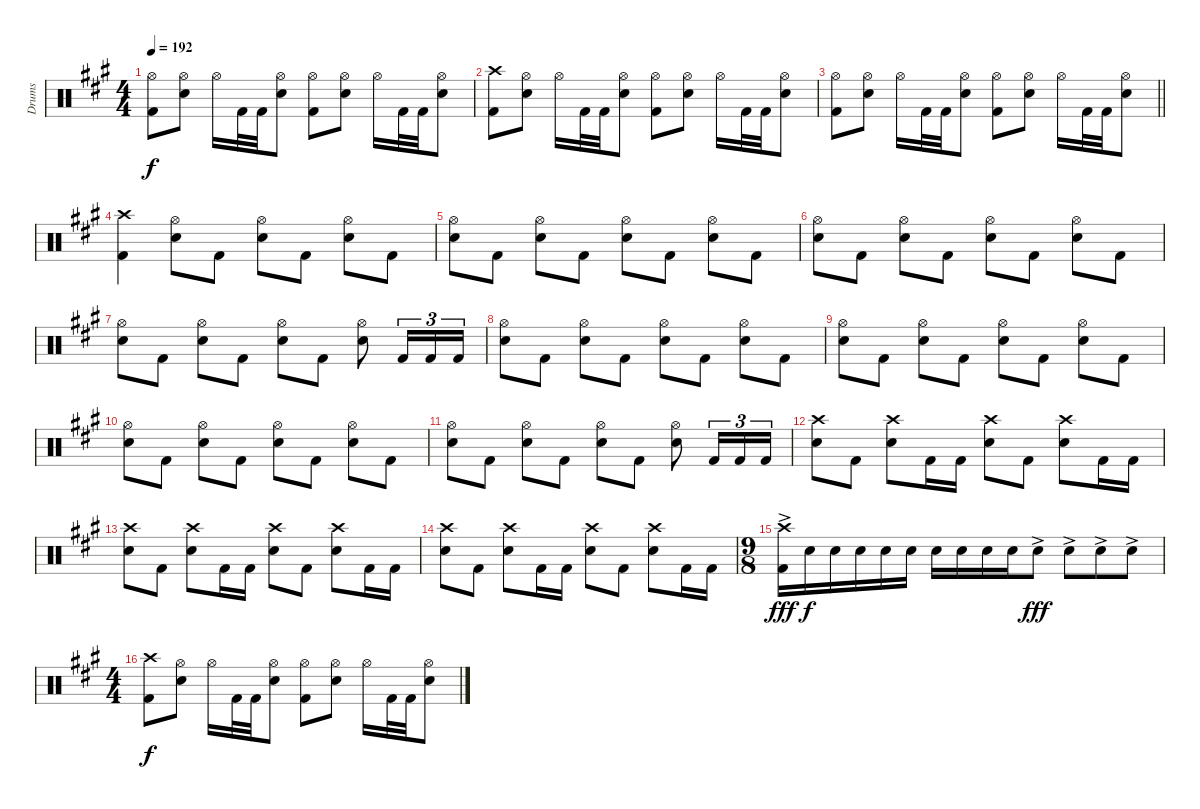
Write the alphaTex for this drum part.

\track ("Drums" "Drums") {instrument percussion}
\staff {score}
\articulation defaults
\ts (4 4)
\tempo 192
\clef neutral
\ks f#minor
("Hi-Hat (open)" "Kick (hit) 2").8{dy f} ("Hi-Hat (open)" "Snare (hit) 2").8 "Hi-Hat (open)".16 "Kick (hit) 2".32 "Kick (hit) 2".32 ("Hi-Hat (open)" "Snare (hit) 2").8 ("Hi-Hat (open)" "Kick (hit) 2").8 ("Hi-Hat (open)" "Snare (hit) 2").8 "Hi-Hat (open)".16 "Kick (hit) 2".32 "Kick (hit) 2".32 ("Hi-Hat (open)" "Snare (hit) 2").8 |
("Crash high (hit)" "Kick (hit) 2").8 ("Hi-Hat (open)" "Snare (hit) 2").8 "Hi-Hat (open)".16 "Kick (hit) 2".32 "Kick (hit) 2".32 ("Hi-Hat (open)" "Snare (hit) 2").8 ("Hi-Hat (open)" "Kick (hit) 2").8 ("Hi-Hat (open)" "Snare (hit) 2").8 "Hi-Hat (open)".16 "Kick (hit) 2".32 "Kick (hit) 2".32 ("Hi-Hat (open)" "Snare (hit) 2").8 |
\barLineRight lightlight
("Hi-Hat (open)" "Kick (hit) 2").8 ("Hi-Hat (open)" "Snare (hit) 2").8 "Hi-Hat (open)".16 "Kick (hit) 2".32 "Kick (hit) 2".32 ("Hi-Hat (open)" "Snare (hit) 2").8 ("Hi-Hat (open)" "Kick (hit) 2").8 ("Hi-Hat (open)" "Snare (hit) 2").8 "Hi-Hat (open)".16 "Kick (hit) 2".32 "Kick (hit) 2".32 ("Hi-Hat (open)" "Snare (hit) 2").8 |
("Crash high (hit)" "Kick (hit) 2").4 ("Hi-Hat (open)" "Snare (hit) 2").8 "Kick (hit) 2".8 ("Hi-Hat (open)" "Snare (hit) 2").8 "Kick (hit) 2".8 ("Hi-Hat (open)" "Snare (hit) 2").8 "Kick (hit) 2".8 |
("Hi-Hat (open)" "Snare (hit) 2").8 "Kick (hit) 2".8 ("Hi-Hat (open)" "Snare (hit) 2").8 "Kick (hit) 2".8 ("Hi-Hat (open)" "Snare (hit) 2").8 "Kick (hit) 2".8 ("Hi-Hat (open)" "Snare (hit) 2").8 "Kick (hit) 2".8 |
("Hi-Hat (open)" "Snare (hit) 2").8 "Kick (hit) 2".8 ("Hi-Hat (open)" "Snare (hit) 2").8 "Kick (hit) 2".8 ("Hi-Hat (open)" "Snare (hit) 2").8 "Kick (hit) 2".8 ("Hi-Hat (open)" "Snare (hit) 2").8 "Kick (hit) 2".8 |
("Hi-Hat (open)" "Snare (hit) 2").8 "Kick (hit) 2".8 ("Hi-Hat (open)" "Snare (hit) 2").8 "Kick (hit) 2".8 ("Hi-Hat (open)" "Snare (hit) 2").8 "Kick (hit) 2".8 ("Hi-Hat (open)" "Snare (hit) 2").8 "Kick (hit) 2".16{tu (3 2)} "Kick (hit) 2".16{tu (3 2)} "Kick (hit) 2".16{tu (3 2)} |
("Hi-Hat (open)" "Snare (hit) 2").8 "Kick (hit) 2".8 ("Hi-Hat (open)" "Snare (hit) 2").8 "Kick (hit) 2".8 ("Hi-Hat (open)" "Snare (hit) 2").8 "Kick (hit) 2".8 ("Hi-Hat (open)" "Snare (hit) 2").8 "Kick (hit) 2".8 |
("Hi-Hat (open)" "Snare (hit) 2").8 "Kick (hit) 2".8 ("Hi-Hat (open)" "Snare (hit) 2").8 "Kick (hit) 2".8 ("Hi-Hat (open)" "Snare (hit) 2").8 "Kick (hit) 2".8 ("Hi-Hat (open)" "Snare (hit) 2").8 "Kick (hit) 2".8 |
("Hi-Hat (open)" "Snare (hit) 2").8 "Kick (hit) 2".8 ("Hi-Hat (open)" "Snare (hit) 2").8 "Kick (hit) 2".8 ("Hi-Hat (open)" "Snare (hit) 2").8 "Kick (hit) 2".8 ("Hi-Hat (open)" "Snare (hit) 2").8 "Kick (hit) 2".8 |
("Hi-Hat (open)" "Snare (hit) 2").8 "Kick (hit) 2".8 ("Hi-Hat (open)" "Snare (hit) 2").8 "Kick (hit) 2".8 ("Hi-Hat (open)" "Snare (hit) 2").8 "Kick (hit) 2".8 ("Hi-Hat (open)" "Snare (hit) 2").8 "Kick (hit) 2".16{tu (3 2)} "Kick (hit) 2".16{tu (3 2)} "Kick (hit) 2".16{tu (3 2)} |
("Crash high (hit)" "Snare (hit) 2").8 "Kick (hit) 2".8 ("Crash high (hit)" "Snare (hit) 2").8 "Kick (hit) 2".16 "Kick (hit) 2".16 ("Crash high (hit)" "Snare (hit) 2").8 "Kick (hit) 2".8 ("Crash high (hit)" "Snare (hit) 2").8 "Kick (hit) 2".16 "Kick (hit) 2".16 |
("Crash high (hit)" "Snare (hit) 2").8 "Kick (hit) 2".8 ("Crash high (hit)" "Snare (hit) 2").8 "Kick (hit) 2".16 "Kick (hit) 2".16 ("Crash high (hit)" "Snare (hit) 2").8 "Kick (hit) 2".8 ("Crash high (hit)" "Snare (hit) 2").8 "Kick (hit) 2".16 "Kick (hit) 2".16 |
("Crash high (hit)" "Snare (hit) 2").8 "Kick (hit) 2".8 ("Crash high (hit)" "Snare (hit) 2").8 "Kick (hit) 2".16 "Kick (hit) 2".16 ("Crash high (hit)" "Snare (hit) 2").8 "Kick (hit) 2".8 ("Crash high (hit)" "Snare (hit) 2").8 "Kick (hit) 2".16 "Kick (hit) 2".16 |
\ts (9 8)
("Crash high (hit)"{ac} "Kick (hit) 2"{ac}).16{dy fff} "Snare (hit) 2".16{dy f} "Snare (hit) 2".16 "Snare (hit) 2".16 "Snare (hit) 2".16 "Snare (hit) 2".16 "Snare (hit) 2".16 "Snare (hit) 2".16 "Snare (hit) 2".16 "Snare (hit) 2".16 "Snare (hit) 2"{ac}.8{dy fff} "Snare (hit) 2"{ac}.8 "Snare (hit) 2"{ac}.8 "Snare (hit) 2"{ac}.8 |
\ts (4 4)
("Crash high (hit)" "Kick (hit) 2").8{dy f} ("Hi-Hat (open)" "Snare (hit) 2").8 "Hi-Hat (open)".16 "Kick (hit) 2".32 "Kick (hit) 2".32 ("Hi-Hat (open)" "Snare (hit) 2").8 ("Hi-Hat (open)" "Kick (hit) 2").8 ("Hi-Hat (open)" "Snare (hit) 2").8 "Hi-Hat (open)".16 "Kick (hit) 2".32 "Kick (hit) 2".32 ("Hi-Hat (open)" "Snare (hit) 2").8
